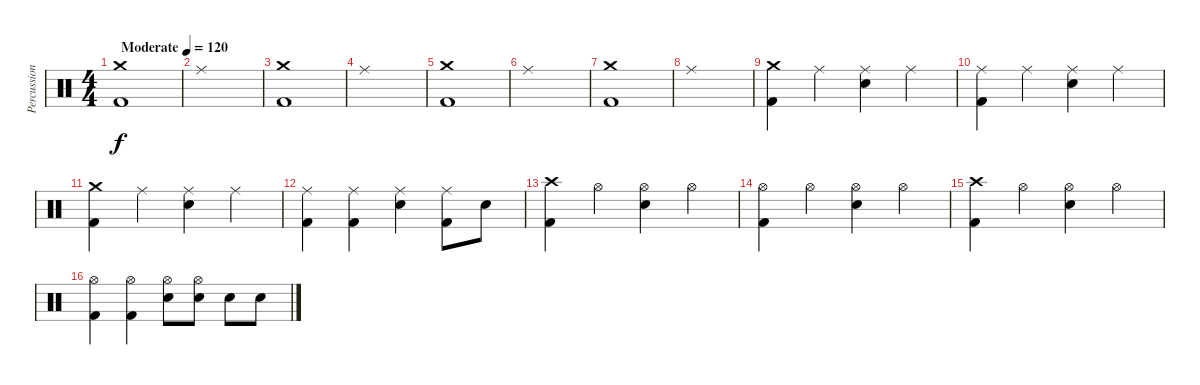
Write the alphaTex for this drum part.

\track ("Percussion" "Percussion") {instrument percussion}
\staff {score}
\articulation defaults
\ts (4 4)
\tempo (120 "Moderate")
\clef neutral
\ks c
("Crash medium (hit)" "Kick (hit) 2").1{dy f} |
"Ride (middle)".1 |
("Crash medium (hit)" "Kick (hit) 2").1 |
"Ride (middle)".1 |
("Crash medium (hit)" "Kick (hit) 2").1 |
"Ride (middle)".1 |
("Crash medium (hit)" "Kick (hit) 2").1 |
"Ride (middle)".1 |
("Crash medium (hit)" "Kick (hit) 2").4 "Ride (middle)".4 ("Ride (middle)" "Snare (hit) 2").4 "Ride (middle)".4 |
("Ride (middle)" "Kick (hit) 2").4 "Ride (middle)".4 ("Ride (middle)" "Snare (hit) 2").4 "Ride (middle)".4 |
("Crash medium (hit)" "Kick (hit) 2").4 "Ride (middle)".4 ("Ride (middle)" "Snare (hit) 2").4 "Ride (middle)".4 |
("Ride (middle)" "Kick (hit) 2").4 ("Ride (middle)" "Kick (hit) 2").4 ("Ride (middle)" "Snare (hit) 2").4 ("Ride (middle)" "Kick (hit) 2").8 "Snare (hit) 2".8 |
("Crash high (hit)" "Kick (hit) 2").4 "Hi-Hat (open)".4 ("Hi-Hat (open)" "Snare (hit) 2").4 "Hi-Hat (open)".4 |
("Hi-Hat (open)" "Kick (hit) 2").4 "Hi-Hat (open)".4 ("Hi-Hat (open)" "Snare (hit) 2").4 "Hi-Hat (open)".4 |
("Crash high (hit)" "Kick (hit) 2").4 "Hi-Hat (open)".4 ("Hi-Hat (open)" "Snare (hit) 2").4 "Hi-Hat (open)".4 |
("Hi-Hat (open)" "Kick (hit) 2").4 ("Hi-Hat (open)" "Kick (hit) 2").4 ("Hi-Hat (open)" "Snare (hit) 2").8 ("Hi-Hat (open)" "Snare (hit) 2").8 "Snare (hit) 2".8 "Snare (hit) 2".8
